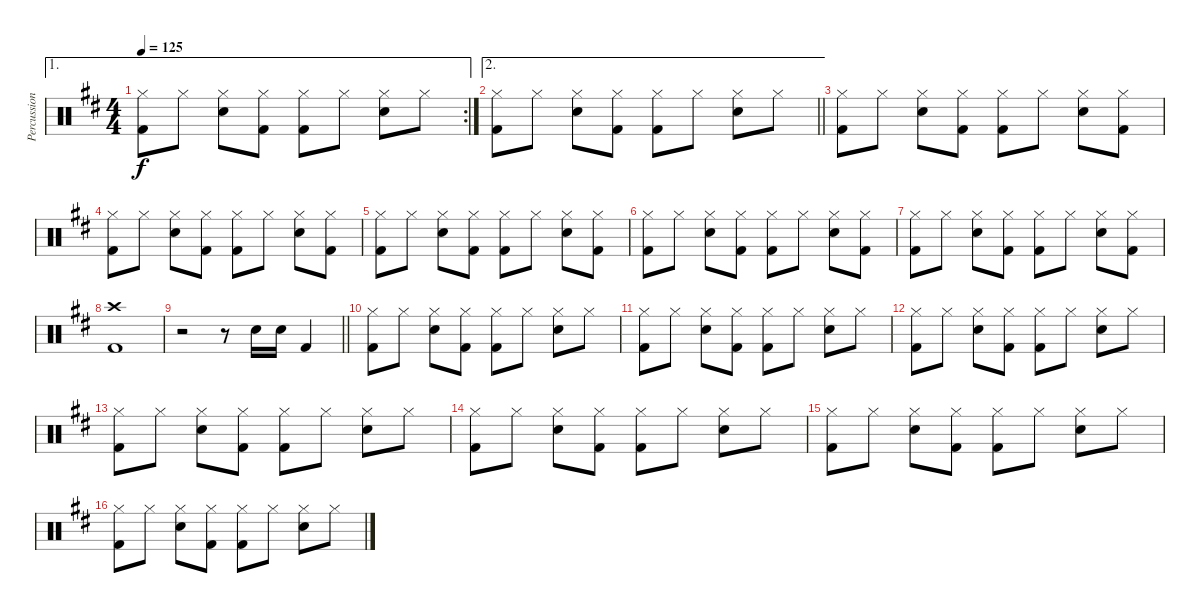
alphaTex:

\track ("Percussion" "Percussion") {instrument percussion}
\staff {score}
\articulation defaults
\ae 1
\rc 2
\ts (4 4)
\tempo 125
\clef neutral
\ks d
("Hi-Hat (closed)" "Kick (hit) 2").8{dy f} "Hi-Hat (closed)".8 ("Hi-Hat (closed)" "Snare (hit) 2").8 ("Hi-Hat (closed)" "Kick (hit) 2").8 ("Hi-Hat (closed)" "Kick (hit) 2").8 "Hi-Hat (closed)".8 ("Hi-Hat (closed)" "Snare (hit) 2").8 "Hi-Hat (closed)".8 |
\ae 2
\barLineRight lightlight
("Hi-Hat (closed)" "Kick (hit) 2").8 "Hi-Hat (closed)".8 ("Hi-Hat (closed)" "Snare (hit) 2").8 ("Hi-Hat (closed)" "Kick (hit) 2").8 ("Hi-Hat (closed)" "Kick (hit) 2").8 "Hi-Hat (closed)".8 ("Hi-Hat (closed)" "Snare (hit) 2").8 "Hi-Hat (closed)".8 |
("Hi-Hat (closed)" "Kick (hit) 2").8 "Hi-Hat (closed)".8 ("Hi-Hat (closed)" "Snare (hit) 2").8 ("Hi-Hat (closed)" "Kick (hit) 2").8 ("Hi-Hat (closed)" "Kick (hit) 2").8 "Hi-Hat (closed)".8 ("Hi-Hat (closed)" "Snare (hit) 2").8 ("Hi-Hat (closed)" "Kick (hit) 2").8 |
("Hi-Hat (closed)" "Kick (hit) 2").8 "Hi-Hat (closed)".8 ("Hi-Hat (closed)" "Snare (hit) 2").8 ("Hi-Hat (closed)" "Kick (hit) 2").8 ("Hi-Hat (closed)" "Kick (hit) 2").8 "Hi-Hat (closed)".8 ("Hi-Hat (closed)" "Snare (hit) 2").8 ("Hi-Hat (closed)" "Kick (hit) 2").8 |
("Hi-Hat (closed)" "Kick (hit) 2").8 "Hi-Hat (closed)".8 ("Hi-Hat (closed)" "Snare (hit) 2").8 ("Hi-Hat (closed)" "Kick (hit) 2").8 ("Hi-Hat (closed)" "Kick (hit) 2").8 "Hi-Hat (closed)".8 ("Hi-Hat (closed)" "Snare (hit) 2").8 ("Hi-Hat (closed)" "Kick (hit) 2").8 |
("Hi-Hat (closed)" "Kick (hit) 2").8 "Hi-Hat (closed)".8 ("Hi-Hat (closed)" "Snare (hit) 2").8 ("Hi-Hat (closed)" "Kick (hit) 2").8 ("Hi-Hat (closed)" "Kick (hit) 2").8 "Hi-Hat (closed)".8 ("Hi-Hat (closed)" "Snare (hit) 2").8 ("Hi-Hat (closed)" "Kick (hit) 2").8 |
("Hi-Hat (closed)" "Kick (hit) 2").8 "Hi-Hat (closed)".8 ("Hi-Hat (closed)" "Snare (hit) 2").8 ("Hi-Hat (closed)" "Kick (hit) 2").8 ("Hi-Hat (closed)" "Kick (hit) 2").8 "Hi-Hat (closed)".8 ("Hi-Hat (closed)" "Snare (hit) 2").8 ("Hi-Hat (closed)" "Kick (hit) 2").8 |
("Crash high (hit)" "Kick (hit) 2").1 |
\barLineRight lightlight
r.2 r.8 "Snare (hit) 2".16 "Snare (hit) 2".16 "Kick (hit) 2".4 |
("Hi-Hat (closed)" "Kick (hit) 2").8 "Hi-Hat (closed)".8 ("Hi-Hat (closed)" "Snare (hit) 2").8 ("Hi-Hat (closed)" "Kick (hit) 2").8 ("Hi-Hat (closed)" "Kick (hit) 2").8 "Hi-Hat (closed)".8 ("Hi-Hat (closed)" "Snare (hit) 2").8 "Hi-Hat (closed)".8 |
("Hi-Hat (closed)" "Kick (hit) 2").8 "Hi-Hat (closed)".8 ("Hi-Hat (closed)" "Snare (hit) 2").8 ("Hi-Hat (closed)" "Kick (hit) 2").8 ("Hi-Hat (closed)" "Kick (hit) 2").8 "Hi-Hat (closed)".8 ("Hi-Hat (closed)" "Snare (hit) 2").8 "Hi-Hat (closed)".8 |
("Hi-Hat (closed)" "Kick (hit) 2").8 "Hi-Hat (closed)".8 ("Hi-Hat (closed)" "Snare (hit) 2").8 ("Hi-Hat (closed)" "Kick (hit) 2").8 ("Hi-Hat (closed)" "Kick (hit) 2").8 "Hi-Hat (closed)".8 ("Hi-Hat (closed)" "Snare (hit) 2").8 "Hi-Hat (closed)".8 |
("Hi-Hat (closed)" "Kick (hit) 2").8 "Hi-Hat (closed)".8 ("Hi-Hat (closed)" "Snare (hit) 2").8 ("Hi-Hat (closed)" "Kick (hit) 2").8 ("Hi-Hat (closed)" "Kick (hit) 2").8 "Hi-Hat (closed)".8 ("Hi-Hat (closed)" "Snare (hit) 2").8 "Hi-Hat (closed)".8 |
("Hi-Hat (closed)" "Kick (hit) 2").8 "Hi-Hat (closed)".8 ("Hi-Hat (closed)" "Snare (hit) 2").8 ("Hi-Hat (closed)" "Kick (hit) 2").8 ("Hi-Hat (closed)" "Kick (hit) 2").8 "Hi-Hat (closed)".8 ("Hi-Hat (closed)" "Snare (hit) 2").8 "Hi-Hat (closed)".8 |
("Hi-Hat (closed)" "Kick (hit) 2").8 "Hi-Hat (closed)".8 ("Hi-Hat (closed)" "Snare (hit) 2").8 ("Hi-Hat (closed)" "Kick (hit) 2").8 ("Hi-Hat (closed)" "Kick (hit) 2").8 "Hi-Hat (closed)".8 ("Hi-Hat (closed)" "Snare (hit) 2").8 "Hi-Hat (closed)".8 |
("Hi-Hat (closed)" "Kick (hit) 2").8 "Hi-Hat (closed)".8 ("Hi-Hat (closed)" "Snare (hit) 2").8 ("Hi-Hat (closed)" "Kick (hit) 2").8 ("Hi-Hat (closed)" "Kick (hit) 2").8 "Hi-Hat (closed)".8 ("Hi-Hat (closed)" "Snare (hit) 2").8 "Hi-Hat (closed)".8
